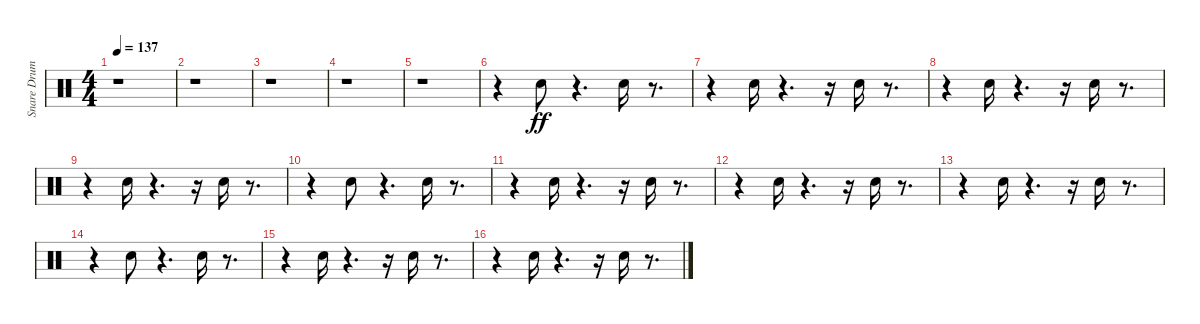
\track ("Snare Drum" "Snare Drum") {instrument percussion}
\staff {score}
\articulation defaults
\ts (4 4)
\tempo 137
\clef neutral
\ks c
r.1{dy ff} |
r.1 |
r.1 |
r.1 |
r.1 |
r.4 "Electric Snare (hit)".8 r.4{d} "Electric Snare (hit)".16 r.8{d} |
r.4 "Electric Snare (hit)".16 r.4{d} r.16 "Electric Snare (hit)".16 r.8{d} |
r.4 "Electric Snare (hit)".16 r.4{d} r.16 "Electric Snare (hit)".16 r.8{d} |
r.4 "Electric Snare (hit)".16 r.4{d} r.16 "Electric Snare (hit)".16 r.8{d} |
r.4 "Electric Snare (hit)".8 r.4{d} "Electric Snare (hit)".16 r.8{d} |
r.4 "Electric Snare (hit)".16 r.4{d} r.16 "Electric Snare (hit)".16 r.8{d} |
r.4 "Electric Snare (hit)".16 r.4{d} r.16 "Electric Snare (hit)".16 r.8{d} |
r.4 "Electric Snare (hit)".16 r.4{d} r.16 "Electric Snare (hit)".16 r.8{d} |
r.4 "Electric Snare (hit)".8 r.4{d} "Electric Snare (hit)".16 r.8{d} |
r.4 "Electric Snare (hit)".16 r.4{d} r.16 "Electric Snare (hit)".16 r.8{d} |
r.4 "Electric Snare (hit)".16 r.4{d} r.16 "Electric Snare (hit)".16 r.8{d}
